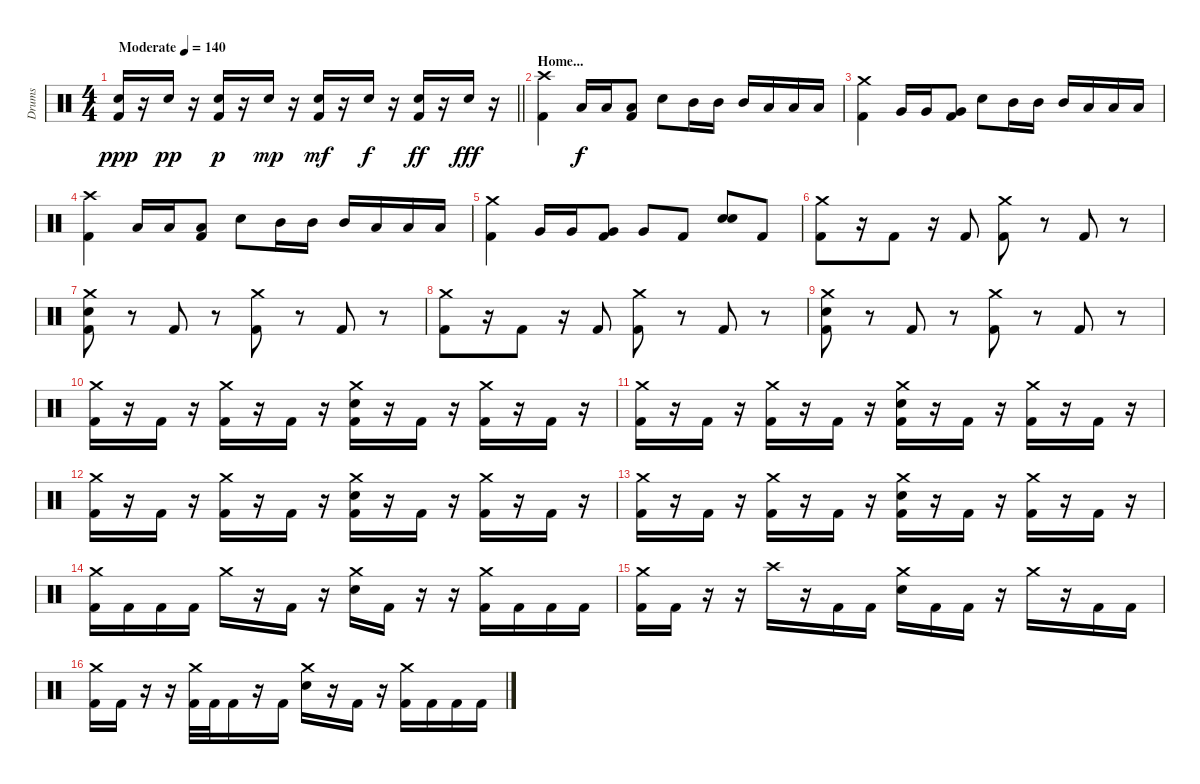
\track ("Drums" "Drums") {instrument percussion}
\staff {score}
\articulation defaults
\ts (4 4)
\tempo (140 "Moderate")
\clef neutral
\barLineRight lightlight
\ks c
("Snare (hit) 2" "Kick (hit) 2").16{dy ppp} r.16 "Snare (hit) 2".16{dy pp} r.16 ("Snare (hit) 2" "Kick (hit) 2").16{dy p} r.16 "Snare (hit) 2".16{dy mp} r.16 ("Snare (hit) 2" "Kick (hit) 2").16{dy mf} r.16 "Snare (hit) 2".16{dy f} r.16 ("Snare (hit) 2" "Kick (hit) 2").16{dy ff} r.16 "Snare (hit) 2".16{dy fff} r.16 |
\section ("" "Home...")
("Crash high (hit)" "Kick (hit) 2").4 "Low Tom (hit)".16{dy f} "Low Tom (hit)".16 ("Low Tom (hit)" "Kick (hit) 2").8 "Snare (hit) 2".8 "Mid Tom (hit)".16 "Mid Tom (hit)".16 "Mid Tom (hit)".16 "Low Tom (hit)".16 "Low Tom (hit)".16 "Low Tom (hit)".16 |
("Crash medium (hit)" "Kick (hit) 2").4 "Very Low Tom (hit)".16 "Very Low Tom (hit)".16 ("Very Low Tom (hit)" "Kick (hit) 2").8 "Snare (hit) 2".8 "Mid Tom (hit)".16 "Mid Tom (hit)".16 "Mid Tom (hit)".16 "Low Tom (hit)".16 "Low Tom (hit)".16 "Low Tom (hit)".16 |
("Crash high (hit)" "Kick (hit) 2").4 "Low Tom (hit)".16 "Low Tom (hit)".16 ("Low Tom (hit)" "Kick (hit) 2").8 "Snare (hit) 2".8 "Mid Tom (hit)".16 "Mid Tom (hit)".16 "Mid Tom (hit)".16 "Low Tom (hit)".16 "Low Tom (hit)".16 "Low Tom (hit)".16 |
("Crash medium (hit)" "Kick (hit) 2").4 "Very Low Tom (hit)".16 "Very Low Tom (hit)".16 ("Very Low Tom (hit)" "Kick (hit) 2").8 "Very Low Tom (hit)".8 "Kick (hit) 2".8 ("Snare (hit) 2" "Snare (hit) 2").8{bu 60} "Kick (hit) 2".8 |
("Crash medium (hit)" "Kick (hit) 2").8 r.16 "Kick (hit) 2".8 r.16 "Kick (hit) 2".8 ("Crash medium (hit)" "Kick (hit) 2").8 r.8 "Kick (hit) 2".8 r.8 |
("Crash medium (hit)" "Snare (hit) 2" "Kick (hit) 2").8 r.8 "Kick (hit) 2".8 r.8 ("Crash medium (hit)" "Kick (hit) 2").8 r.8 "Kick (hit) 2".8 r.8 |
("Crash medium (hit)" "Kick (hit) 2").8 r.16 "Kick (hit) 2".8 r.16 "Kick (hit) 2".8 ("Crash medium (hit)" "Kick (hit) 2").8 r.8 "Kick (hit) 2".8 r.8 |
("Crash medium (hit)" "Snare (hit) 2" "Kick (hit) 2").8 r.8 "Kick (hit) 2".8 r.8 ("Crash medium (hit)" "Kick (hit) 2").8 r.8 "Kick (hit) 2".8 r.8 |
("Crash medium (hit)" "Kick (hit) 2").16 r.16 "Kick (hit) 2".16 r.16 ("Crash medium (hit)" "Kick (hit) 2").16 r.16 "Kick (hit) 2".16 r.16 ("Crash medium (hit)" "Snare (hit) 2" "Kick (hit) 2").16 r.16 "Kick (hit) 2".16 r.16 ("Crash medium (hit)" "Kick (hit) 2").16 r.16 "Kick (hit) 2".16 r.16 |
("Crash medium (hit)" "Kick (hit) 2").16 r.16 "Kick (hit) 2".16 r.16 ("Crash medium (hit)" "Kick (hit) 2").16 r.16 "Kick (hit) 2".16 r.16 ("Crash medium (hit)" "Snare (hit) 2" "Kick (hit) 2").16 r.16 "Kick (hit) 2".16 r.16 ("Crash medium (hit)" "Kick (hit) 2").16 r.16 "Kick (hit) 2".16 r.16 |
("Crash medium (hit)" "Kick (hit) 2").16 r.16 "Kick (hit) 2".16 r.16 ("Crash medium (hit)" "Kick (hit) 2").16 r.16 "Kick (hit) 2".16 r.16 ("Crash medium (hit)" "Snare (hit) 2" "Kick (hit) 2").16 r.16 "Kick (hit) 2".16 r.16 ("Crash medium (hit)" "Kick (hit) 2").16 r.16 "Kick (hit) 2".16 r.16 |
("Crash medium (hit)" "Kick (hit) 2").16 r.16 "Kick (hit) 2".16 r.16 ("Crash medium (hit)" "Kick (hit) 2").16 r.16 "Kick (hit) 2".16 r.16 ("Crash medium (hit)" "Snare (hit) 2" "Kick (hit) 2").16 r.16 "Kick (hit) 2".16 r.16 ("Crash medium (hit)" "Kick (hit) 2").16 r.16 "Kick (hit) 2".16 r.16 |
("Crash medium (hit)" "Kick (hit) 2").16 "Kick (hit) 2".16 "Kick (hit) 2".16 "Kick (hit) 2".16 "Crash medium (hit)".16 r.16 "Kick (hit) 2".16 r.16 ("Crash medium (hit)" "Snare (hit) 2").16 "Kick (hit) 2".16 r.16 r.16 ("Crash medium (hit)" "Kick (hit) 2").16 "Kick (hit) 2".16 "Kick (hit) 2".16 "Kick (hit) 2".16 |
("Crash medium (hit)" "Kick (hit) 2").16 "Kick (hit) 2".16 r.16 r.16 "Crash high (hit)".16 r.16 "Kick (hit) 2".16 "Kick (hit) 2".16 ("Crash medium (hit)" "Snare (hit) 2").16 "Kick (hit) 2".16 "Kick (hit) 2".16 r.16 "Crash medium (hit)".16 r.16 "Kick (hit) 2".16 "Kick (hit) 2".16 |
("Crash medium (hit)" "Kick (hit) 2").16 "Kick (hit) 2".16 r.16 r.16 ("Crash medium (hit)" "Kick (hit) 2").32 "Kick (hit) 2".32 "Kick (hit) 2".16 r.16 "Kick (hit) 2".16 ("Crash medium (hit)" "Snare (hit) 2").16 r.16 "Kick (hit) 2".16 r.16 ("Crash medium (hit)" "Kick (hit) 2").16 "Kick (hit) 2".16 "Kick (hit) 2".16 "Kick (hit) 2".16
